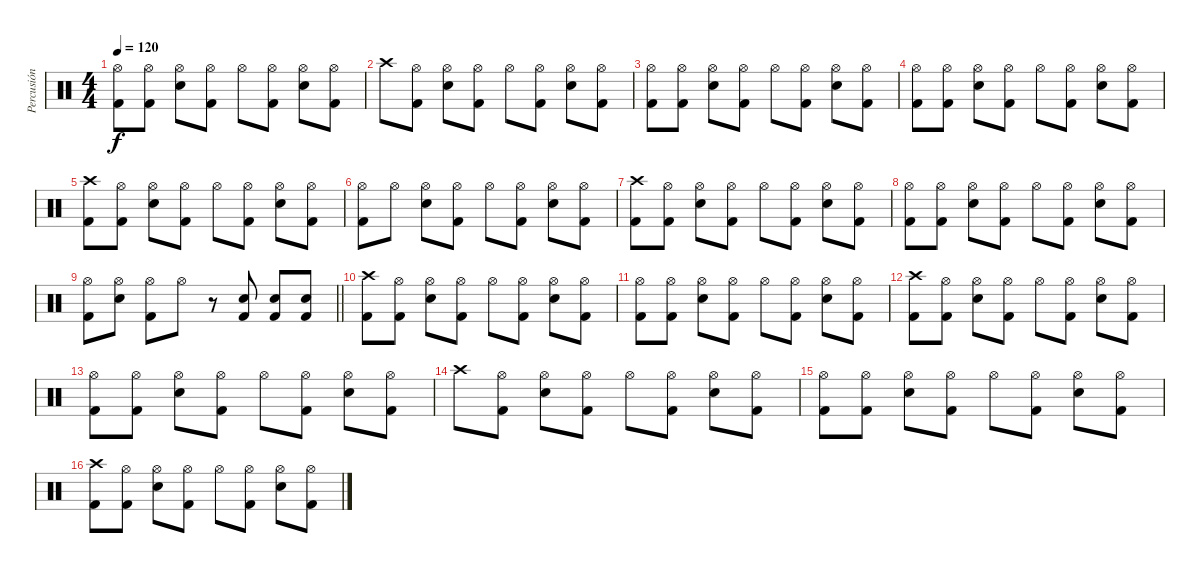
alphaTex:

\track ("Percusión" "Percusión") {instrument percussion}
\staff {score}
\articulation defaults
\ts (4 4)
\tempo 120
\clef neutral
\ks c
("Hi-Hat (open)" "Kick (hit) 2").8{dy f} ("Hi-Hat (open)" "Kick (hit) 2").8 ("Hi-Hat (open)" "Snare (hit) 2").8 ("Hi-Hat (open)" "Kick (hit) 2").8 "Hi-Hat (open)".8 ("Hi-Hat (open)" "Kick (hit) 2").8 ("Hi-Hat (open)" "Snare (hit) 2").8 ("Hi-Hat (open)" "Kick (hit) 2").8 |
"Crash high (hit)".8 ("Hi-Hat (open)" "Kick (hit) 2").8 ("Hi-Hat (open)" "Snare (hit) 2").8 ("Hi-Hat (open)" "Kick (hit) 2").8 "Hi-Hat (open)".8 ("Hi-Hat (open)" "Kick (hit) 2").8 ("Hi-Hat (open)" "Snare (hit) 2").8 ("Hi-Hat (open)" "Kick (hit) 2").8 |
("Hi-Hat (open)" "Kick (hit) 2").8 ("Hi-Hat (open)" "Kick (hit) 2").8 ("Hi-Hat (open)" "Snare (hit) 2").8 ("Hi-Hat (open)" "Kick (hit) 2").8 "Hi-Hat (open)".8 ("Hi-Hat (open)" "Kick (hit) 2").8 ("Hi-Hat (open)" "Snare (hit) 2").8 ("Hi-Hat (open)" "Kick (hit) 2").8 |
("Hi-Hat (open)" "Kick (hit) 2").8 ("Hi-Hat (open)" "Kick (hit) 2").8 ("Hi-Hat (open)" "Snare (hit) 2").8 ("Hi-Hat (open)" "Kick (hit) 2").8 "Hi-Hat (open)".8 ("Hi-Hat (open)" "Kick (hit) 2").8 ("Hi-Hat (open)" "Snare (hit) 2").8 ("Hi-Hat (open)" "Kick (hit) 2").8 |
("Crash high (hit)" "Kick (hit) 2").8 ("Hi-Hat (open)" "Kick (hit) 2").8 ("Hi-Hat (open)" "Snare (hit) 2").8 ("Hi-Hat (open)" "Kick (hit) 2").8 "Hi-Hat (open)".8 ("Hi-Hat (open)" "Kick (hit) 2").8 ("Hi-Hat (open)" "Snare (hit) 2").8 ("Hi-Hat (open)" "Kick (hit) 2").8 |
("Hi-Hat (open)" "Kick (hit) 2").8 "Hi-Hat (open)".8 ("Hi-Hat (open)" "Snare (hit) 2").8 ("Hi-Hat (open)" "Kick (hit) 2").8 "Hi-Hat (open)".8 ("Hi-Hat (open)" "Kick (hit) 2").8 ("Hi-Hat (open)" "Snare (hit) 2").8 ("Hi-Hat (open)" "Kick (hit) 2").8 |
("Crash high (hit)" "Kick (hit) 2").8 ("Hi-Hat (open)" "Kick (hit) 2").8 ("Hi-Hat (open)" "Snare (hit) 2").8 ("Hi-Hat (open)" "Kick (hit) 2").8 "Hi-Hat (open)".8 ("Hi-Hat (open)" "Kick (hit) 2").8 ("Hi-Hat (open)" "Snare (hit) 2").8 ("Hi-Hat (open)" "Kick (hit) 2").8 |
("Hi-Hat (open)" "Kick (hit) 2").8 ("Hi-Hat (open)" "Kick (hit) 2").8 ("Hi-Hat (open)" "Snare (hit) 2").8 ("Hi-Hat (open)" "Kick (hit) 2").8 "Hi-Hat (open)".8 ("Hi-Hat (open)" "Kick (hit) 2").8 ("Hi-Hat (open)" "Snare (hit) 2").8 ("Hi-Hat (open)" "Kick (hit) 2").8 |
\barLineRight lightlight
("Hi-Hat (open)" "Kick (hit) 2").8 ("Hi-Hat (open)" "Snare (hit) 2").8 ("Hi-Hat (open)" "Kick (hit) 2").8 "Hi-Hat (open)".8 r.8 ("Snare (hit) 2" "Kick (hit) 2").8 ("Snare (hit) 2" "Kick (hit) 2").8 ("Snare (hit) 2" "Kick (hit) 2").8 |
("Crash high (hit)" "Kick (hit) 2").8 ("Hi-Hat (open)" "Kick (hit) 2").8 ("Hi-Hat (open)" "Snare (hit) 2").8 ("Hi-Hat (open)" "Kick (hit) 2").8 "Hi-Hat (open)".8 ("Hi-Hat (open)" "Kick (hit) 2").8 ("Hi-Hat (open)" "Snare (hit) 2").8 ("Hi-Hat (open)" "Kick (hit) 2").8 |
("Hi-Hat (open)" "Kick (hit) 2").8 ("Hi-Hat (open)" "Kick (hit) 2").8 ("Hi-Hat (open)" "Snare (hit) 2").8 ("Hi-Hat (open)" "Kick (hit) 2").8 "Hi-Hat (open)".8 ("Hi-Hat (open)" "Kick (hit) 2").8 ("Hi-Hat (open)" "Snare (hit) 2").8 ("Hi-Hat (open)" "Kick (hit) 2").8 |
("Crash high (hit)" "Kick (hit) 2").8 ("Hi-Hat (open)" "Kick (hit) 2").8 ("Hi-Hat (open)" "Snare (hit) 2").8 ("Hi-Hat (open)" "Kick (hit) 2").8 "Hi-Hat (open)".8 ("Hi-Hat (open)" "Kick (hit) 2").8 ("Hi-Hat (open)" "Snare (hit) 2").8 ("Hi-Hat (open)" "Kick (hit) 2").8 |
("Hi-Hat (open)" "Kick (hit) 2").8 ("Hi-Hat (open)" "Kick (hit) 2").8 ("Hi-Hat (open)" "Snare (hit) 2").8 ("Hi-Hat (open)" "Kick (hit) 2").8 "Hi-Hat (open)".8 ("Hi-Hat (open)" "Kick (hit) 2").8 ("Hi-Hat (open)" "Snare (hit) 2").8 ("Hi-Hat (open)" "Kick (hit) 2").8 |
"Crash high (hit)".8 ("Hi-Hat (open)" "Kick (hit) 2").8 ("Hi-Hat (open)" "Snare (hit) 2").8 ("Hi-Hat (open)" "Kick (hit) 2").8 "Hi-Hat (open)".8 ("Hi-Hat (open)" "Kick (hit) 2").8 ("Hi-Hat (open)" "Snare (hit) 2").8 ("Hi-Hat (open)" "Kick (hit) 2").8 |
("Hi-Hat (open)" "Kick (hit) 2").8 ("Hi-Hat (open)" "Kick (hit) 2").8 ("Hi-Hat (open)" "Snare (hit) 2").8 ("Hi-Hat (open)" "Kick (hit) 2").8 "Hi-Hat (open)".8 ("Hi-Hat (open)" "Kick (hit) 2").8 ("Hi-Hat (open)" "Snare (hit) 2").8 ("Hi-Hat (open)" "Kick (hit) 2").8 |
("Crash high (hit)" "Kick (hit) 2").8 ("Hi-Hat (open)" "Kick (hit) 2").8 ("Hi-Hat (open)" "Snare (hit) 2").8 ("Hi-Hat (open)" "Kick (hit) 2").8 "Hi-Hat (open)".8 ("Hi-Hat (open)" "Kick (hit) 2").8 ("Hi-Hat (open)" "Snare (hit) 2").8 ("Hi-Hat (open)" "Kick (hit) 2").8
